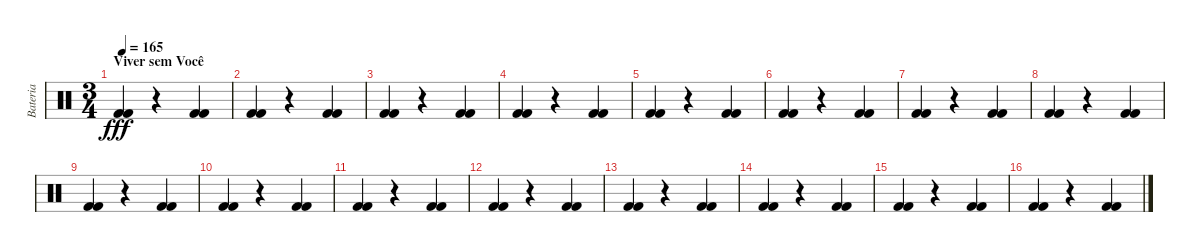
\track ("Bateria" "Bateria") {instrument percussion}
\staff {score}
\articulation defaults
\ts (3 4)
\section ("" "Viver sem Você")
\tempo 165
\clef neutral
\ks c
("Kick (hit) 2" "Kick (hit) 2").4{dy fff} r.4 ("Kick (hit) 2" "Kick (hit) 2").4 |
("Kick (hit) 2" "Kick (hit) 2").4 r.4 ("Kick (hit) 2" "Kick (hit) 2").4 |
("Kick (hit) 2" "Kick (hit) 2").4 r.4 ("Kick (hit) 2" "Kick (hit) 2").4 |
("Kick (hit) 2" "Kick (hit) 2").4 r.4 ("Kick (hit) 2" "Kick (hit) 2").4 |
("Kick (hit) 2" "Kick (hit) 2").4 r.4 ("Kick (hit) 2" "Kick (hit) 2").4 |
("Kick (hit) 2" "Kick (hit) 2").4 r.4 ("Kick (hit) 2" "Kick (hit) 2").4 |
("Kick (hit) 2" "Kick (hit) 2").4 r.4 ("Kick (hit) 2" "Kick (hit) 2").4 |
("Kick (hit) 2" "Kick (hit) 2").4 r.4 ("Kick (hit) 2" "Kick (hit) 2").4 |
("Kick (hit) 2" "Kick (hit) 2").4 r.4 ("Kick (hit) 2" "Kick (hit) 2").4 |
("Kick (hit) 2" "Kick (hit) 2").4 r.4 ("Kick (hit) 2" "Kick (hit) 2").4 |
("Kick (hit) 2" "Kick (hit) 2").4 r.4 ("Kick (hit) 2" "Kick (hit) 2").4 |
("Kick (hit) 2" "Kick (hit) 2").4 r.4 ("Kick (hit) 2" "Kick (hit) 2").4 |
("Kick (hit) 2" "Kick (hit) 2").4 r.4 ("Kick (hit) 2" "Kick (hit) 2").4 |
("Kick (hit) 2" "Kick (hit) 2").4 r.4 ("Kick (hit) 2" "Kick (hit) 2").4 |
("Kick (hit) 2" "Kick (hit) 2").4 r.4 ("Kick (hit) 2" "Kick (hit) 2").4 |
("Kick (hit) 2" "Kick (hit) 2").4 r.4 ("Kick (hit) 2" "Kick (hit) 2").4
